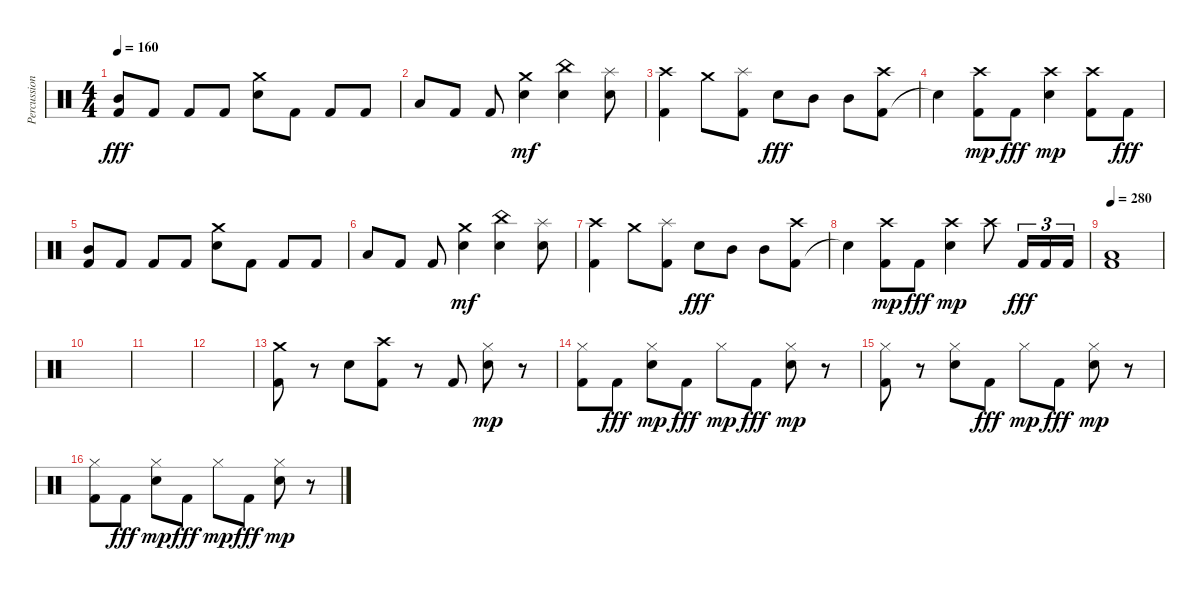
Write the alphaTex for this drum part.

\track ("Percussion" "Percussion") {instrument percussion}
\staff {score}
\articulation defaults
\ts (4 4)
\tempo 160
\clef neutral
\ks c
("Kick (hit) 2" "Mid Tom (hit)").8{dy fff} "Kick (hit) 2".8 "Kick (hit) 2".8 "Kick (hit) 2".8 ("Electric Snare (hit)" "Crash medium (hit)").8 "Kick (hit) 2".8 "Kick (hit) 2".8 "Kick (hit) 2".8 |
"Low Tom (hit)".8 "Kick (hit) 2".8 "Kick (hit) 2".8 ("Electric Snare (hit)" "Crash medium (hit)").4{dy mf} ("Electric Snare (hit)" "China (hit)").4 ("Electric Snare (hit)" "Splash (hit)").8 |
("Kick (hit) 2" "Crash high (hit)").4 "Crash medium (hit)".8 ("Kick (hit) 2" "Splash (hit)").8 "Electric Snare (hit)".8{dy fff} "Mid Tom (hit)".8 "Mid Tom (hit)".8 ("Kick (hit) 2" "Crash high (hit)").8 |
"Snare (hit)"{t}.4 ("Kick (hit) 2" "Crash high (hit)").8{dy mp} "Kick (hit) 2".8{dy fff} ("Electric Snare (hit)" "Crash high (hit)").4{dy mp} ("Kick (hit) 2" "Crash high (hit)").8 "Kick (hit) 2".8{dy fff} |
("Kick (hit) 2" "Mid Tom (hit)").8 "Kick (hit) 2".8 "Kick (hit) 2".8 "Kick (hit) 2".8 ("Electric Snare (hit)" "Crash medium (hit)").8 "Kick (hit) 2".8 "Kick (hit) 2".8 "Kick (hit) 2".8 |
"Low Tom (hit)".8 "Kick (hit) 2".8 "Kick (hit) 2".8 ("Electric Snare (hit)" "Crash medium (hit)").4{dy mf} ("Electric Snare (hit)" "China (hit)").4 ("Electric Snare (hit)" "Splash (hit)").8 |
("Kick (hit) 2" "Crash high (hit)").4 "Crash medium (hit)".8 ("Kick (hit) 2" "Splash (hit)").8 "Electric Snare (hit)".8{dy fff} "Mid Tom (hit)".8 "Mid Tom (hit)".8 ("Kick (hit) 2" "Crash high (hit)").8 |
"Snare (hit)"{t}.4 ("Kick (hit) 2" "Crash high (hit)").8{dy mp} "Kick (hit) 2".8{dy fff} ("Electric Snare (hit)" "Crash high (hit)").4{dy mp} "Crash high (hit)".8 "Kick (hit) 2".16{tu (3 2) dy fff} "Kick (hit) 2".16{tu (3 2)} "Kick (hit) 2".16{tu (3 2)} |
\tempo 280
("Kick (hit) 2" "Low Tom (hit)").1 |
|
|
|
("Kick (hit) 2" "Crash medium (hit)").8 r.8 "Electric Snare (hit)".8 ("Kick (hit) 2" "Crash high (hit)").8 r.8 "Kick (hit) 2".8 ("Electric Snare (hit)" "Hi-Hat (closed)").8{dy mp} r.8 |
("Kick (hit) 2" "Hi-Hat (closed)").8 "Kick (hit) 2".8{dy fff} ("Electric Snare (hit)" "Hi-Hat (closed)").8{dy mp} "Kick (hit) 2".8{dy fff} "Hi-Hat (closed)".8{dy mp} "Kick (hit) 2".8{dy fff} ("Electric Snare (hit)" "Hi-Hat (closed)").8{dy mp} r.8 |
("Kick (hit) 2" "Hi-Hat (closed)").8 r.8 ("Electric Snare (hit)" "Hi-Hat (closed)").8 "Kick (hit) 2".8{dy fff} "Hi-Hat (closed)".8{dy mp} "Kick (hit) 2".8{dy fff} ("Electric Snare (hit)" "Hi-Hat (closed)").8{dy mp} r.8 |
("Kick (hit) 2" "Hi-Hat (closed)").8 "Kick (hit) 2".8{dy fff} ("Electric Snare (hit)" "Hi-Hat (closed)").8{dy mp} "Kick (hit) 2".8{dy fff} "Hi-Hat (closed)".8{dy mp} "Kick (hit) 2".8{dy fff} ("Electric Snare (hit)" "Hi-Hat (closed)").8{dy mp} r.8
